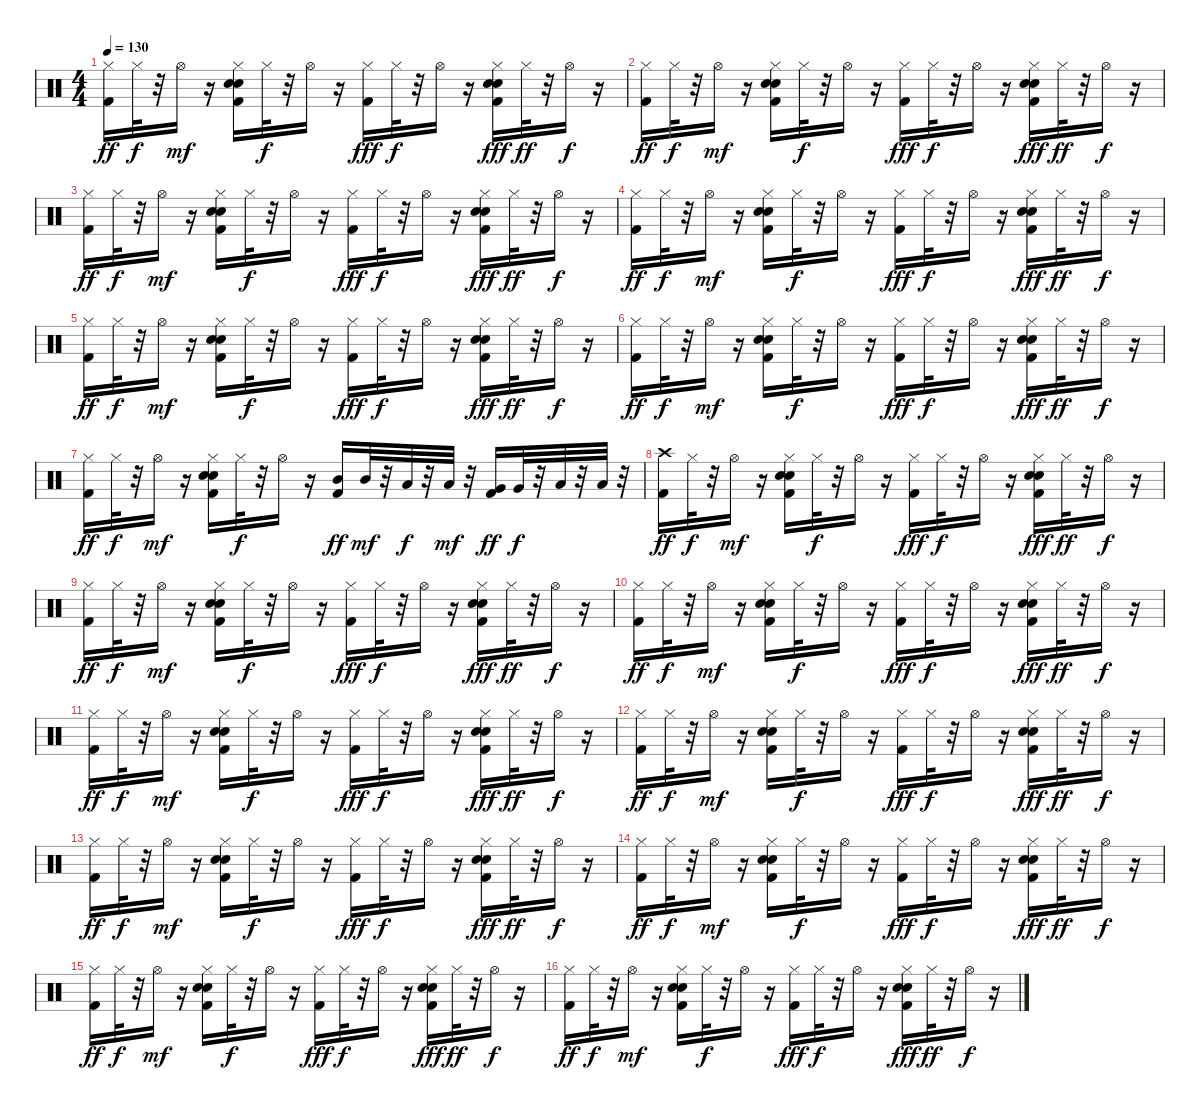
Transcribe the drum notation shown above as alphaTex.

\track "" {instrument percussion}
\staff {score}
\articulation defaults
\ts (4 4)
\tempo 130
\clef neutral
\ks c
("Kick (hit) 2" "Hi-Hat (closed)").16{dy ff} "Hi-Hat (closed)".32{dy f} r.32 "Hi-Hat (open)".16{dy mf} r.16 ("Kick (hit) 2" "Hand Clap (hit)" "Electric Snare (hit)" "Hi-Hat (closed)").16 "Hi-Hat (closed)".32{dy f} r.32 "Hi-Hat (open)".16 r.16 ("Kick (hit) 2" "Hi-Hat (closed)").16{dy fff} "Hi-Hat (closed)".32{dy f} r.32 "Hi-Hat (open)".16 r.16 ("Kick (hit) 2" "Hand Clap (hit)" "Electric Snare (hit)" "Hi-Hat (closed)").16{dy fff} "Hi-Hat (closed)".32{dy ff} r.32 "Hi-Hat (open)".16{dy f} r.16 |
("Kick (hit) 2" "Hi-Hat (closed)").16{dy ff} "Hi-Hat (closed)".32{dy f} r.32 "Hi-Hat (open)".16{dy mf} r.16 ("Kick (hit) 2" "Hand Clap (hit)" "Electric Snare (hit)" "Hi-Hat (closed)").16 "Hi-Hat (closed)".32{dy f} r.32 "Hi-Hat (open)".16 r.16 ("Kick (hit) 2" "Hi-Hat (closed)").16{dy fff} "Hi-Hat (closed)".32{dy f} r.32 "Hi-Hat (open)".16 r.16 ("Kick (hit) 2" "Hand Clap (hit)" "Electric Snare (hit)" "Hi-Hat (closed)").16{dy fff} "Hi-Hat (closed)".32{dy ff} r.32 "Hi-Hat (open)".16{dy f} r.16 |
("Kick (hit) 2" "Hi-Hat (closed)").16{dy ff} "Hi-Hat (closed)".32{dy f} r.32 "Hi-Hat (open)".16{dy mf} r.16 ("Kick (hit) 2" "Hand Clap (hit)" "Electric Snare (hit)" "Hi-Hat (closed)").16 "Hi-Hat (closed)".32{dy f} r.32 "Hi-Hat (open)".16 r.16 ("Kick (hit) 2" "Hi-Hat (closed)").16{dy fff} "Hi-Hat (closed)".32{dy f} r.32 "Hi-Hat (open)".16 r.16 ("Kick (hit) 2" "Hand Clap (hit)" "Electric Snare (hit)" "Hi-Hat (closed)").16{dy fff} "Hi-Hat (closed)".32{dy ff} r.32 "Hi-Hat (open)".16{dy f} r.16 |
("Kick (hit) 2" "Hi-Hat (closed)").16{dy ff} "Hi-Hat (closed)".32{dy f} r.32 "Hi-Hat (open)".16{dy mf} r.16 ("Kick (hit) 2" "Hand Clap (hit)" "Electric Snare (hit)" "Hi-Hat (closed)").16 "Hi-Hat (closed)".32{dy f} r.32 "Hi-Hat (open)".16 r.16 ("Kick (hit) 2" "Hi-Hat (closed)").16{dy fff} "Hi-Hat (closed)".32{dy f} r.32 "Hi-Hat (open)".16 r.16 ("Kick (hit) 2" "Hand Clap (hit)" "Electric Snare (hit)" "Hi-Hat (closed)").16{dy fff} "Hi-Hat (closed)".32{dy ff} r.32 "Hi-Hat (open)".16{dy f} r.16 |
("Kick (hit) 2" "Hi-Hat (closed)").16{dy ff} "Hi-Hat (closed)".32{dy f} r.32 "Hi-Hat (open)".16{dy mf} r.16 ("Kick (hit) 2" "Hand Clap (hit)" "Electric Snare (hit)" "Hi-Hat (closed)").16 "Hi-Hat (closed)".32{dy f} r.32 "Hi-Hat (open)".16 r.16 ("Kick (hit) 2" "Hi-Hat (closed)").16{dy fff} "Hi-Hat (closed)".32{dy f} r.32 "Hi-Hat (open)".16 r.16 ("Kick (hit) 2" "Hand Clap (hit)" "Electric Snare (hit)" "Hi-Hat (closed)").16{dy fff} "Hi-Hat (closed)".32{dy ff} r.32 "Hi-Hat (open)".16{dy f} r.16 |
("Kick (hit) 2" "Hi-Hat (closed)").16{dy ff} "Hi-Hat (closed)".32{dy f} r.32 "Hi-Hat (open)".16{dy mf} r.16 ("Kick (hit) 2" "Hand Clap (hit)" "Electric Snare (hit)" "Hi-Hat (closed)").16 "Hi-Hat (closed)".32{dy f} r.32 "Hi-Hat (open)".16 r.16 ("Kick (hit) 2" "Hi-Hat (closed)").16{dy fff} "Hi-Hat (closed)".32{dy f} r.32 "Hi-Hat (open)".16 r.16 ("Kick (hit) 2" "Hand Clap (hit)" "Electric Snare (hit)" "Hi-Hat (closed)").16{dy fff} "Hi-Hat (closed)".32{dy ff} r.32 "Hi-Hat (open)".16{dy f} r.16 |
("Kick (hit) 2" "Hi-Hat (closed)").16{dy ff} "Hi-Hat (closed)".32{dy f} r.32 "Hi-Hat (open)".16{dy mf} r.16 ("Kick (hit) 2" "Hand Clap (hit)" "Electric Snare (hit)" "Hi-Hat (closed)").16 "Hi-Hat (closed)".32{dy f} r.32 "Hi-Hat (open)".16 r.16 ("Kick (hit) 2" "Mid Tom (hit)").16{dy ff} "Mid Tom (hit)".32{dy mf} r.32 "Low Tom (hit)".32{dy f} r.32 "Low Tom (hit)".32{dy mf} r.32 ("Kick (hit) 2" "Very Low Tom (hit)").16{dy ff} "Very Low Tom (hit)".32{dy f} r.32 "Low Floor Tom (hit)".32 r.32 "Low Floor Tom (hit)".32 r.32 |
("Kick (hit) 2" "Crash high (hit)").16{dy ff} "Hi-Hat (closed)".32{dy f} r.32 "Hi-Hat (open)".16{dy mf} r.16 ("Kick (hit) 2" "Hand Clap (hit)" "Electric Snare (hit)" "Hi-Hat (closed)").16 "Hi-Hat (closed)".32{dy f} r.32 "Hi-Hat (open)".16 r.16 ("Kick (hit) 2" "Hi-Hat (closed)").16{dy fff} "Hi-Hat (closed)".32{dy f} r.32 "Hi-Hat (open)".16 r.16 ("Kick (hit) 2" "Hand Clap (hit)" "Electric Snare (hit)" "Hi-Hat (closed)").16{dy fff} "Hi-Hat (closed)".32{dy ff} r.32 "Hi-Hat (open)".16{dy f} r.16 |
("Kick (hit) 2" "Hi-Hat (closed)").16{dy ff} "Hi-Hat (closed)".32{dy f} r.32 "Hi-Hat (open)".16{dy mf} r.16 ("Kick (hit) 2" "Hand Clap (hit)" "Electric Snare (hit)" "Hi-Hat (closed)").16 "Hi-Hat (closed)".32{dy f} r.32 "Hi-Hat (open)".16 r.16 ("Kick (hit) 2" "Hi-Hat (closed)").16{dy fff} "Hi-Hat (closed)".32{dy f} r.32 "Hi-Hat (open)".16 r.16 ("Kick (hit) 2" "Hand Clap (hit)" "Electric Snare (hit)" "Hi-Hat (closed)").16{dy fff} "Hi-Hat (closed)".32{dy ff} r.32 "Hi-Hat (open)".16{dy f} r.16 |
("Kick (hit) 2" "Hi-Hat (closed)").16{dy ff} "Hi-Hat (closed)".32{dy f} r.32 "Hi-Hat (open)".16{dy mf} r.16 ("Kick (hit) 2" "Hand Clap (hit)" "Electric Snare (hit)" "Hi-Hat (closed)").16 "Hi-Hat (closed)".32{dy f} r.32 "Hi-Hat (open)".16 r.16 ("Kick (hit) 2" "Hi-Hat (closed)").16{dy fff} "Hi-Hat (closed)".32{dy f} r.32 "Hi-Hat (open)".16 r.16 ("Kick (hit) 2" "Hand Clap (hit)" "Electric Snare (hit)" "Hi-Hat (closed)").16{dy fff} "Hi-Hat (closed)".32{dy ff} r.32 "Hi-Hat (open)".16{dy f} r.16 |
("Kick (hit) 2" "Hi-Hat (closed)").16{dy ff} "Hi-Hat (closed)".32{dy f} r.32 "Hi-Hat (open)".16{dy mf} r.16 ("Kick (hit) 2" "Hand Clap (hit)" "Electric Snare (hit)" "Hi-Hat (closed)").16 "Hi-Hat (closed)".32{dy f} r.32 "Hi-Hat (open)".16 r.16 ("Kick (hit) 2" "Hi-Hat (closed)").16{dy fff} "Hi-Hat (closed)".32{dy f} r.32 "Hi-Hat (open)".16 r.16 ("Kick (hit) 2" "Hand Clap (hit)" "Electric Snare (hit)" "Hi-Hat (closed)").16{dy fff} "Hi-Hat (closed)".32{dy ff} r.32 "Hi-Hat (open)".16{dy f} r.16 |
("Kick (hit) 2" "Hi-Hat (closed)").16{dy ff} "Hi-Hat (closed)".32{dy f} r.32 "Hi-Hat (open)".16{dy mf} r.16 ("Kick (hit) 2" "Hand Clap (hit)" "Electric Snare (hit)" "Hi-Hat (closed)").16 "Hi-Hat (closed)".32{dy f} r.32 "Hi-Hat (open)".16 r.16 ("Kick (hit) 2" "Hi-Hat (closed)").16{dy fff} "Hi-Hat (closed)".32{dy f} r.32 "Hi-Hat (open)".16 r.16 ("Kick (hit) 2" "Hand Clap (hit)" "Electric Snare (hit)" "Hi-Hat (closed)").16{dy fff} "Hi-Hat (closed)".32{dy ff} r.32 "Hi-Hat (open)".16{dy f} r.16 |
("Kick (hit) 2" "Hi-Hat (closed)").16{dy ff} "Hi-Hat (closed)".32{dy f} r.32 "Hi-Hat (open)".16{dy mf} r.16 ("Kick (hit) 2" "Hand Clap (hit)" "Electric Snare (hit)" "Hi-Hat (closed)").16 "Hi-Hat (closed)".32{dy f} r.32 "Hi-Hat (open)".16 r.16 ("Kick (hit) 2" "Hi-Hat (closed)").16{dy fff} "Hi-Hat (closed)".32{dy f} r.32 "Hi-Hat (open)".16 r.16 ("Kick (hit) 2" "Hand Clap (hit)" "Electric Snare (hit)" "Hi-Hat (closed)").16{dy fff} "Hi-Hat (closed)".32{dy ff} r.32 "Hi-Hat (open)".16{dy f} r.16 |
("Kick (hit) 2" "Hi-Hat (closed)").16{dy ff} "Hi-Hat (closed)".32{dy f} r.32 "Hi-Hat (open)".16{dy mf} r.16 ("Kick (hit) 2" "Hand Clap (hit)" "Electric Snare (hit)" "Hi-Hat (closed)").16 "Hi-Hat (closed)".32{dy f} r.32 "Hi-Hat (open)".16 r.16 ("Kick (hit) 2" "Hi-Hat (closed)").16{dy fff} "Hi-Hat (closed)".32{dy f} r.32 "Hi-Hat (open)".16 r.16 ("Kick (hit) 2" "Hand Clap (hit)" "Electric Snare (hit)" "Hi-Hat (closed)").16{dy fff} "Hi-Hat (closed)".32{dy ff} r.32 "Hi-Hat (open)".16{dy f} r.16 |
("Kick (hit) 2" "Hi-Hat (closed)").16{dy ff} "Hi-Hat (closed)".32{dy f} r.32 "Hi-Hat (open)".16{dy mf} r.16 ("Kick (hit) 2" "Hand Clap (hit)" "Electric Snare (hit)" "Hi-Hat (closed)").16 "Hi-Hat (closed)".32{dy f} r.32 "Hi-Hat (open)".16 r.16 ("Kick (hit) 2" "Hi-Hat (closed)").16{dy fff} "Hi-Hat (closed)".32{dy f} r.32 "Hi-Hat (open)".16 r.16 ("Kick (hit) 2" "Hand Clap (hit)" "Electric Snare (hit)" "Hi-Hat (closed)").16{dy fff} "Hi-Hat (closed)".32{dy ff} r.32 "Hi-Hat (open)".16{dy f} r.16 |
("Kick (hit) 2" "Hi-Hat (closed)").16{dy ff} "Hi-Hat (closed)".32{dy f} r.32 "Hi-Hat (open)".16{dy mf} r.16 ("Kick (hit) 2" "Hand Clap (hit)" "Electric Snare (hit)" "Hi-Hat (closed)").16 "Hi-Hat (closed)".32{dy f} r.32 "Hi-Hat (open)".16 r.16 ("Kick (hit) 2" "Hi-Hat (closed)").16{dy fff} "Hi-Hat (closed)".32{dy f} r.32 "Hi-Hat (open)".16 r.16 ("Kick (hit) 2" "Hand Clap (hit)" "Electric Snare (hit)" "Hi-Hat (closed)").16{dy fff} "Hi-Hat (closed)".32{dy ff} r.32 "Hi-Hat (open)".16{dy f} r.16
